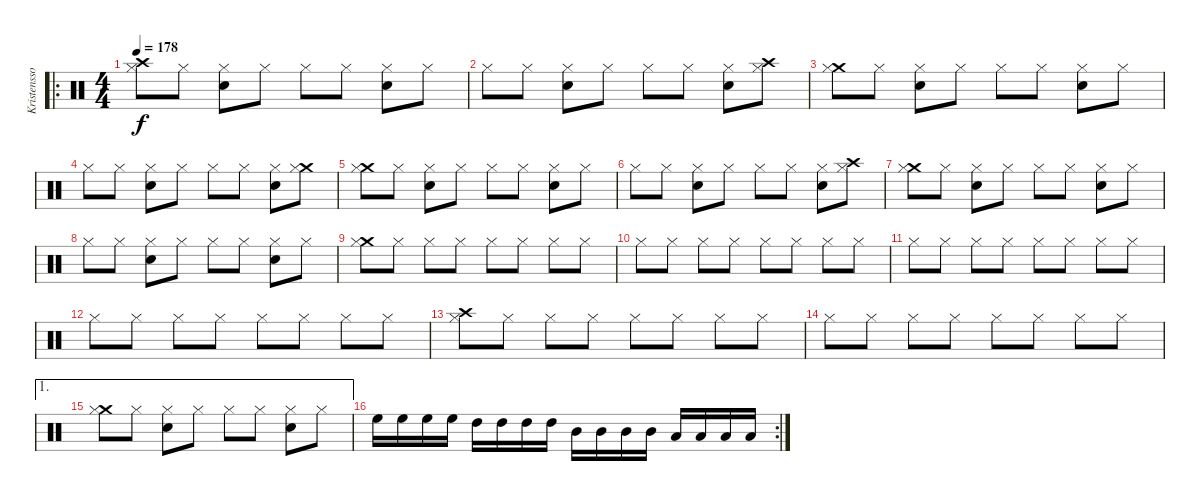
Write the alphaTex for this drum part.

\track ("Kristensson" "Kristensso") {instrument percussion}
\staff {score}
\articulation defaults
\ro
\ts (4 4)
\tempo 178
\clef neutral
\ks c
("Crash high (hit)" "Hi-Hat (closed)").8{dy f} "Hi-Hat (closed)".8 ("Snare (hit) 2" "Hi-Hat (closed)").8 "Hi-Hat (closed)".8 "Hi-Hat (closed)".8 "Hi-Hat (closed)".8 ("Snare (hit) 2" "Hi-Hat (closed)").8 "Hi-Hat (closed)".8 |
"Hi-Hat (closed)".8 "Hi-Hat (closed)".8 ("Snare (hit) 2" "Hi-Hat (closed)").8 "Hi-Hat (closed)".8 "Hi-Hat (closed)".8 "Hi-Hat (closed)".8 ("Snare (hit) 2" "Hi-Hat (closed)").8 ("Crash high (hit)" "Hi-Hat (closed)").8 |
("Crash medium (hit)" "Hi-Hat (closed)").8 "Hi-Hat (closed)".8 ("Snare (hit) 2" "Hi-Hat (closed)").8 "Hi-Hat (closed)".8 "Hi-Hat (closed)".8 "Hi-Hat (closed)".8 ("Snare (hit) 2" "Hi-Hat (closed)").8 "Hi-Hat (closed)".8 |
"Hi-Hat (closed)".8 "Hi-Hat (closed)".8 ("Snare (hit) 2" "Hi-Hat (closed)").8 "Hi-Hat (closed)".8 "Hi-Hat (closed)".8 "Hi-Hat (closed)".8 ("Snare (hit) 2" "Hi-Hat (closed)").8 ("Crash medium (hit)" "Hi-Hat (closed)").8 |
("Crash medium (hit)" "Hi-Hat (closed)").8 "Hi-Hat (closed)".8 ("Snare (hit) 2" "Hi-Hat (closed)").8 "Hi-Hat (closed)".8 "Hi-Hat (closed)".8 "Hi-Hat (closed)".8 ("Snare (hit) 2" "Hi-Hat (closed)").8 "Hi-Hat (closed)".8 |
"Hi-Hat (closed)".8 "Hi-Hat (closed)".8 ("Snare (hit) 2" "Hi-Hat (closed)").8 "Hi-Hat (closed)".8 "Hi-Hat (closed)".8 "Hi-Hat (closed)".8 ("Snare (hit) 2" "Hi-Hat (closed)").8 ("Crash high (hit)" "Hi-Hat (closed)").8 |
("Crash medium (hit)" "Hi-Hat (closed)").8 "Hi-Hat (closed)".8 ("Snare (hit) 2" "Hi-Hat (closed)").8 "Hi-Hat (closed)".8 "Hi-Hat (closed)".8 "Hi-Hat (closed)".8 ("Snare (hit) 2" "Hi-Hat (closed)").8 "Hi-Hat (closed)".8 |
"Hi-Hat (closed)".8 "Hi-Hat (closed)".8 ("Snare (hit) 2" "Hi-Hat (closed)").8 "Hi-Hat (closed)".8 "Hi-Hat (closed)".8 "Hi-Hat (closed)".8 ("Snare (hit) 2" "Hi-Hat (closed)").8 "Hi-Hat (closed)".8 |
("Crash medium (hit)" "Hi-Hat (closed)").8 "Hi-Hat (closed)".8 "Hi-Hat (closed)".8 "Hi-Hat (closed)".8 "Hi-Hat (closed)".8 "Hi-Hat (closed)".8 "Hi-Hat (closed)".8 "Hi-Hat (closed)".8 |
"Hi-Hat (closed)".8 "Hi-Hat (closed)".8 "Hi-Hat (closed)".8 "Hi-Hat (closed)".8 "Hi-Hat (closed)".8 "Hi-Hat (closed)".8 "Hi-Hat (closed)".8 "Hi-Hat (closed)".8 |
"Hi-Hat (closed)".8 "Hi-Hat (closed)".8 "Hi-Hat (closed)".8 "Hi-Hat (closed)".8 "Hi-Hat (closed)".8 "Hi-Hat (closed)".8 "Hi-Hat (closed)".8 "Hi-Hat (closed)".8 |
"Hi-Hat (closed)".8 "Hi-Hat (closed)".8 "Hi-Hat (closed)".8 "Hi-Hat (closed)".8 "Hi-Hat (closed)".8 "Hi-Hat (closed)".8 "Hi-Hat (closed)".8 "Hi-Hat (closed)".8 |
("Crash high (hit)" "Hi-Hat (closed)").8 "Hi-Hat (closed)".8 "Hi-Hat (closed)".8 "Hi-Hat (closed)".8 "Hi-Hat (closed)".8 "Hi-Hat (closed)".8 "Hi-Hat (closed)".8 "Hi-Hat (closed)".8 |
"Hi-Hat (closed)".8 "Hi-Hat (closed)".8 "Hi-Hat (closed)".8 "Hi-Hat (closed)".8 "Hi-Hat (closed)".8 "Hi-Hat (closed)".8 "Hi-Hat (closed)".8 "Hi-Hat (closed)".8 |
\ae 1
("Crash medium (hit)" "Hi-Hat (closed)").8 "Hi-Hat (closed)".8 ("Snare (hit) 2" "Hi-Hat (closed)").8 "Hi-Hat (closed)".8 "Hi-Hat (closed)".8 "Hi-Hat (closed)".8 ("Snare (hit) 2" "Hi-Hat (closed)").8 "Hi-Hat (closed)".8 |
\rc 2 "High Floor Tom (hit)".16 "High Floor Tom (hit)".16 "High Floor Tom (hit)".16 "High Floor Tom (hit)".16 "High Tom (hit)".16 "High Tom (hit)".16 "High Tom (hit)".16 "High Tom (hit)".16 "Mid Tom (hit)".16 "Mid Tom (hit)".16 "Mid Tom (hit)".16 "Mid Tom (hit)".16 "Low Tom (hit)".16 "Low Tom (hit)".16 "Low Tom (hit)".16 "Low Tom (hit)".16
